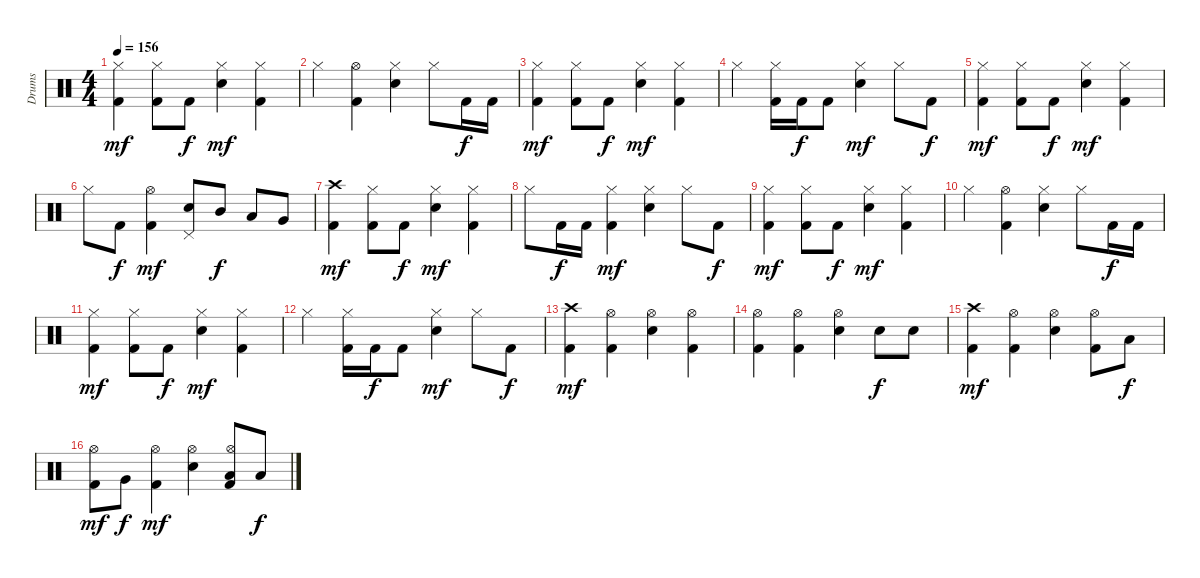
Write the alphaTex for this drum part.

\track ("Drums" "Drums") {instrument percussion}
\staff {score}
\articulation defaults
\ts (4 4)
\tempo 156
\clef neutral
\ks c
("Hi-Hat (closed)" "Kick (hit) 2").4{dy mf} ("Hi-Hat (closed)" "Kick (hit) 2").8 "Kick (hit) 2".8{dy f} ("Hi-Hat (closed)" "Electric Snare (hit)").4{dy mf} ("Hi-Hat (closed)" "Kick (hit) 2").4 |
"Hi-Hat (closed)".4 ("Hi-Hat (open)" "Kick (hit) 2").4 ("Hi-Hat (closed)" "Electric Snare (hit)").4 "Hi-Hat (closed)".8 "Kick (hit) 2".16{dy f} "Kick (hit) 2".16 |
("Hi-Hat (closed)" "Kick (hit) 2").4{dy mf} ("Hi-Hat (closed)" "Kick (hit) 2").8 "Kick (hit) 2".8{dy f} ("Hi-Hat (closed)" "Electric Snare (hit)").4{dy mf} ("Hi-Hat (closed)" "Kick (hit) 2").4 |
"Hi-Hat (closed)".4 ("Hi-Hat (closed)" "Kick (hit) 2").16 "Kick (hit) 2".16{dy f} "Kick (hit) 2".8 ("Hi-Hat (closed)" "Electric Snare (hit)").4{dy mf} "Hi-Hat (closed)".8 "Kick (hit) 2".8{dy f} |
("Hi-Hat (closed)" "Kick (hit) 2").4{dy mf} ("Hi-Hat (closed)" "Kick (hit) 2").8 "Kick (hit) 2".8{dy f} ("Hi-Hat (closed)" "Electric Snare (hit)").4{dy mf} ("Hi-Hat (closed)" "Kick (hit) 2").4 |
"Hi-Hat (closed)".8 "Kick (hit) 2".8{dy f} ("Hi-Hat (open)" "Kick (hit) 2").4{dy mf} ("Pedal Hi-Hat (hit)" "Electric Snare (hit)").8 "Mid Tom (hit)".8{dy f} "Low Tom (hit)".8 "Very Low Tom (hit)".8 |
("Crash high (hit)" "Kick (hit) 2").4{dy mf} ("Hi-Hat (closed)" "Kick (hit) 2").8 "Kick (hit) 2".8{dy f} ("Hi-Hat (closed)" "Electric Snare (hit)").4{dy mf} ("Hi-Hat (closed)" "Kick (hit) 2").4 |
"Hi-Hat (closed)".8 "Kick (hit) 2".16{dy f} "Kick (hit) 2".16 ("Hi-Hat (closed)" "Kick (hit) 2").4{dy mf} ("Hi-Hat (closed)" "Electric Snare (hit)").4 "Hi-Hat (closed)".8 "Kick (hit) 2".8{dy f} |
("Hi-Hat (closed)" "Kick (hit) 2").4{dy mf} ("Hi-Hat (closed)" "Kick (hit) 2").8 "Kick (hit) 2".8{dy f} ("Hi-Hat (closed)" "Electric Snare (hit)").4{dy mf} ("Hi-Hat (closed)" "Kick (hit) 2").4 |
"Hi-Hat (closed)".4 ("Hi-Hat (open)" "Kick (hit) 2").4 ("Hi-Hat (closed)" "Electric Snare (hit)").4 "Hi-Hat (closed)".8 "Kick (hit) 2".16{dy f} "Kick (hit) 2".16 |
("Hi-Hat (closed)" "Kick (hit) 2").4{dy mf} ("Hi-Hat (closed)" "Kick (hit) 2").8 "Kick (hit) 2".8{dy f} ("Hi-Hat (closed)" "Electric Snare (hit)").4{dy mf} ("Hi-Hat (closed)" "Kick (hit) 2").4 |
"Hi-Hat (closed)".4 ("Hi-Hat (closed)" "Kick (hit) 2").16 "Kick (hit) 2".16{dy f} "Kick (hit) 2".8 ("Hi-Hat (closed)" "Electric Snare (hit)").4{dy mf} "Hi-Hat (closed)".8 "Kick (hit) 2".8{dy f} |
("Crash high (hit)" "Kick (hit) 2").4{dy mf} ("Hi-Hat (open)" "Kick (hit) 2").4 ("Hi-Hat (open)" "Electric Snare (hit)").4 ("Hi-Hat (open)" "Kick (hit) 2").4 |
("Hi-Hat (open)" "Kick (hit) 2").4 ("Hi-Hat (open)" "Kick (hit) 2").4 ("Hi-Hat (open)" "Electric Snare (hit)").4 "Electric Snare (hit)".8{dy f} "Electric Snare (hit)".8 |
("Crash high (hit)" "Kick (hit) 2").4{dy mf} ("Hi-Hat (open)" "Kick (hit) 2").4 ("Hi-Hat (open)" "Electric Snare (hit)").4 ("Hi-Hat (open)" "Kick (hit) 2").8 "Low Tom (hit)".8{dy f} |
("Hi-Hat (open)" "Kick (hit) 2").8{dy mf} "Very Low Tom (hit)".8{dy f} ("Hi-Hat (open)" "Kick (hit) 2").4{dy mf} ("Hi-Hat (open)" "Electric Snare (hit)").4 ("Hi-Hat (open)" "Low Floor Tom (hit)" "Kick (hit) 2").8 "Low Floor Tom (hit)".8{dy f}
